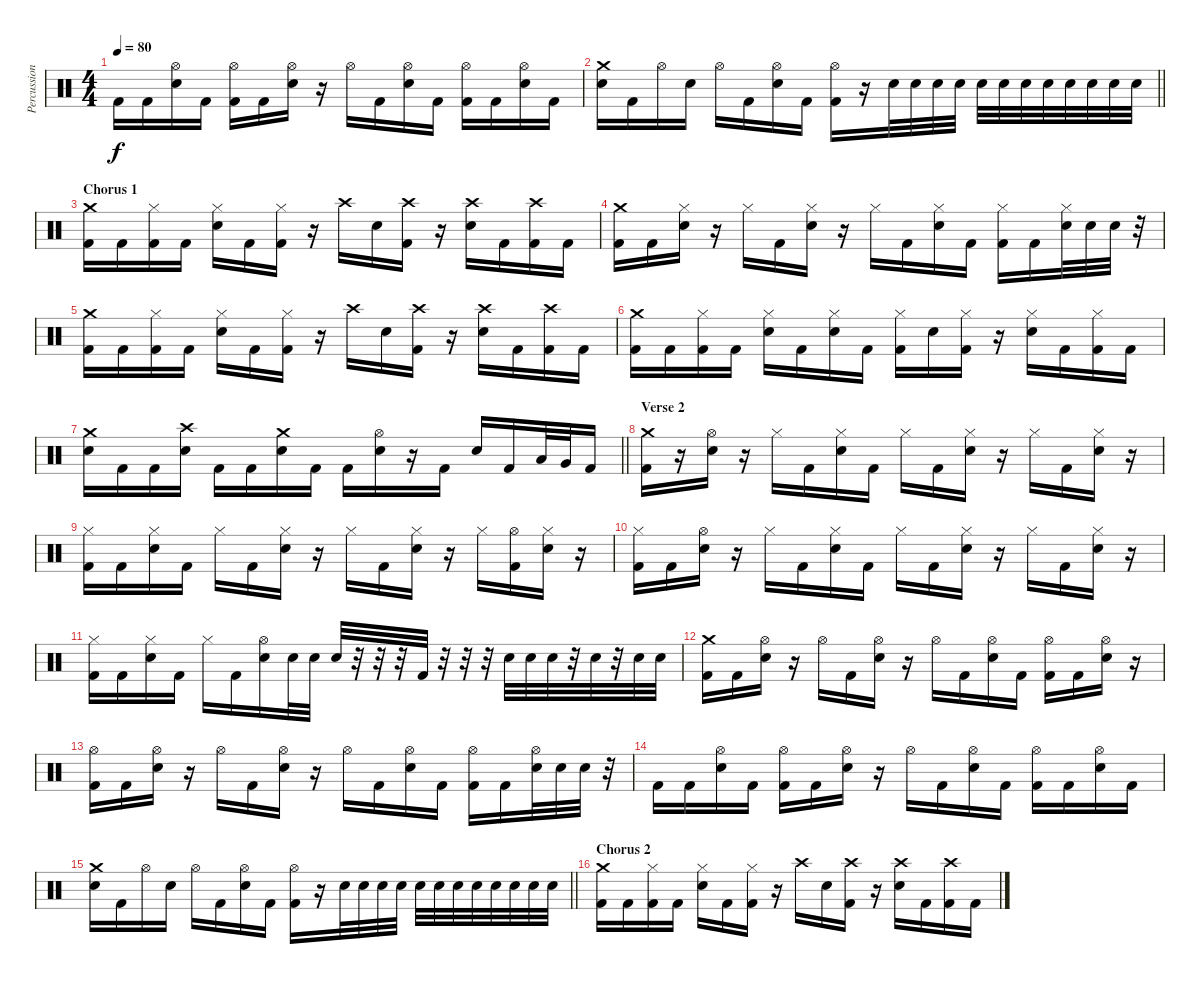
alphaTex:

\track ("Percussion" "Percussion") {instrument percussion}
\staff {score}
\articulation defaults
\ts (4 4)
\tempo 80
\clef neutral
\ks c "Kick (hit) 2".16{dy f} "Kick (hit) 2".16
("Hi-Hat (open)" "Electric Snare (hit)").16 "Kick (hit) 2".16 ("Hi-Hat (open)" "Kick (hit) 2").16 "Kick (hit) 2".16 ("Hi-Hat (open)" "Electric Snare (hit)").16 r.16 "Hi-Hat (open)".16 "Kick (hit) 2".16 ("Hi-Hat (open)" "Electric Snare (hit)").16 "Kick (hit) 2".16 ("Hi-Hat (open)" "Kick (hit) 2").16 "Kick (hit) 2".16 ("Hi-Hat (open)" "Electric Snare (hit)").16 "Kick (hit) 2".16 |
\barLineRight lightlight
("Crash medium (hit)" "Electric Snare (hit)").16 "Kick (hit) 2".16 "Hi-Hat (open)".16 "Electric Snare (hit)".16 "Hi-Hat (open)".16 "Kick (hit) 2".16 ("Hi-Hat (open)" "Electric Snare (hit)").16 "Kick (hit) 2".16 ("Hi-Hat (open)" "Kick (hit) 2").16 r.16 "Electric Snare (hit)".32 "Electric Snare (hit)".32 "Electric Snare (hit)".32 "Electric Snare (hit)".32 "Electric Snare (hit)".32 "Electric Snare (hit)".32 "Electric Snare (hit)".32 "Electric Snare (hit)".32 "Electric Snare (hit)".32 "Electric Snare (hit)".32 "Electric Snare (hit)".32 "Electric Snare (hit)".32 |
\section ("" "Chorus 1")
("Crash medium (hit)" "Kick (hit) 2").16 "Kick (hit) 2".16 ("Hi-Hat (closed)" "Kick (hit) 2").16 "Kick (hit) 2".16 ("Hi-Hat (closed)" "Electric Snare (hit)").16 "Kick (hit) 2".16 ("Hi-Hat (closed)" "Kick (hit) 2").16 r.16 "Crash high (hit)".16 "Electric Snare (hit)".16 ("Crash high (hit)" "Kick (hit) 2").16 r.16 ("Crash high (hit)" "Electric Snare (hit)").16 "Kick (hit) 2".16 ("Crash high (hit)" "Kick (hit) 2").16 "Kick (hit) 2".16 |
("Crash medium (hit)" "Kick (hit) 2").16 "Kick (hit) 2".16 ("Hi-Hat (closed)" "Electric Snare (hit)").16 r.16 "Hi-Hat (closed)".16 "Kick (hit) 2".16 ("Hi-Hat (closed)" "Electric Snare (hit)").16 r.16 "Hi-Hat (closed)".16 "Kick (hit) 2".16 ("Hi-Hat (closed)" "Electric Snare (hit)").16 "Kick (hit) 2".16 ("Hi-Hat (closed)" "Kick (hit) 2").16 "Kick (hit) 2".16 ("Hi-Hat (closed)" "Electric Snare (hit)").32 "Electric Snare (hit)".32 "Electric Snare (hit)".32 r.32 |
("Crash medium (hit)" "Kick (hit) 2").16 "Kick (hit) 2".16 ("Hi-Hat (closed)" "Kick (hit) 2").16 "Kick (hit) 2".16 ("Hi-Hat (closed)" "Electric Snare (hit)").16 "Kick (hit) 2".16 ("Hi-Hat (closed)" "Kick (hit) 2").16 r.16 "Crash high (hit)".16 "Electric Snare (hit)".16 ("Crash high (hit)" "Kick (hit) 2").16 r.16 ("Crash high (hit)" "Electric Snare (hit)").16 "Kick (hit) 2".16 ("Crash high (hit)" "Kick (hit) 2").16 "Kick (hit) 2".16 |
("Crash medium (hit)" "Kick (hit) 2").16 "Kick (hit) 2".16 ("Hi-Hat (closed)" "Kick (hit) 2").16 "Kick (hit) 2".16 ("Hi-Hat (closed)" "Electric Snare (hit)").16 "Kick (hit) 2".16 ("Hi-Hat (closed)" "Electric Snare (hit)").16 "Kick (hit) 2".16 ("Hi-Hat (closed)" "Kick (hit) 2").16 "Electric Snare (hit)".16 ("Hi-Hat (closed)" "Kick (hit) 2").16 r.16 ("Hi-Hat (closed)" "Electric Snare (hit)").16 "Kick (hit) 2".16 ("Hi-Hat (closed)" "Kick (hit) 2").16 "Kick (hit) 2".16 |
\barLineRight lightlight
("Crash medium (hit)" "Electric Snare (hit)").16 "Kick (hit) 2".16 "Kick (hit) 2".16 ("Crash high (hit)" "Electric Snare (hit)").16 "Kick (hit) 2".16 "Kick (hit) 2".16 ("Crash medium (hit)" "Electric Snare (hit)").16 "Kick (hit) 2".16 "Kick (hit) 2".16 ("Hi-Hat (open)" "Electric Snare (hit)").16 r.16 "Kick (hit) 2".16 "Electric Snare (hit)".16 "Kick (hit) 2".16 "Low Floor Tom (hit)".32 "Very Low Tom (hit)".32 "Kick (hit) 2".16 |
\section ("" "Verse 2")
("Crash medium (hit)" "Kick (hit) 2").16 r.16 ("Hi-Hat (open)" "Electric Snare (hit)").16 r.16 "Hi-Hat (closed)".16 "Kick (hit) 2".16 ("Hi-Hat (closed)" "Electric Snare (hit)").16 "Kick (hit) 2".16 "Hi-Hat (closed)".16 "Kick (hit) 2".16 ("Hi-Hat (closed)" "Electric Snare (hit)").16 r.16 "Hi-Hat (closed)".16 "Kick (hit) 2".16 ("Hi-Hat (closed)" "Electric Snare (hit)").16 r.16 |
("Hi-Hat (closed)" "Kick (hit) 2").16 "Kick (hit) 2".16 ("Hi-Hat (closed)" "Electric Snare (hit)").16 "Kick (hit) 2".16 "Hi-Hat (closed)".16 "Kick (hit) 2".16 ("Hi-Hat (closed)" "Electric Snare (hit)").16 r.16 "Hi-Hat (closed)".16 "Kick (hit) 2".16 ("Hi-Hat (closed)" "Electric Snare (hit)").16 r.16 "Hi-Hat (closed)".16 ("Hi-Hat (open)" "Kick (hit) 2").16 ("Hi-Hat (closed)" "Electric Snare (hit)").16 r.16 |
("Hi-Hat (closed)" "Kick (hit) 2").16 "Kick (hit) 2".16 ("Hi-Hat (open)" "Electric Snare (hit)").16 r.16 "Hi-Hat (closed)".16 "Kick (hit) 2".16 ("Hi-Hat (closed)" "Electric Snare (hit)").16 "Kick (hit) 2".16 "Hi-Hat (closed)".16 "Kick (hit) 2".16 ("Hi-Hat (closed)" "Electric Snare (hit)").16 r.16 "Hi-Hat (closed)".16 "Kick (hit) 2".16 ("Hi-Hat (closed)" "Electric Snare (hit)").16 r.16 |
("Hi-Hat (closed)" "Kick (hit) 2").16 "Kick (hit) 2".16 ("Hi-Hat (closed)" "Electric Snare (hit)").16 "Kick (hit) 2".16 "Hi-Hat (closed)".16 "Kick (hit) 2".16 ("Hi-Hat (open)" "Electric Snare (hit)").16 "Electric Snare (hit)".32 "Electric Snare (hit)".32 "Electric Snare (hit)".32 r.32 r.32 r.32 "Kick (hit) 2".32 r.32 r.32 r.32 "Electric Snare (hit)".32 "Electric Snare (hit)".32 "Electric Snare (hit)".32 r.32 "Electric Snare (hit)".32 r.32 "Electric Snare (hit)".32 "Electric Snare (hit)".32 |
("Crash medium (hit)" "Kick (hit) 2").16 "Kick (hit) 2".16 ("Hi-Hat (open)" "Electric Snare (hit)").16 r.16 "Hi-Hat (open)".16 "Kick (hit) 2".16 ("Hi-Hat (open)" "Electric Snare (hit)").16 r.16 "Hi-Hat (open)".16 "Kick (hit) 2".16 ("Hi-Hat (open)" "Electric Snare (hit)").16 "Kick (hit) 2".16 ("Hi-Hat (open)" "Kick (hit) 2").16 "Kick (hit) 2".16 ("Hi-Hat (open)" "Electric Snare (hit)").16 r.16 |
("Hi-Hat (open)" "Kick (hit) 2").16 "Kick (hit) 2".16 ("Hi-Hat (open)" "Electric Snare (hit)").16 r.16 "Hi-Hat (open)".16 "Kick (hit) 2".16 ("Hi-Hat (open)" "Electric Snare (hit)").16 r.16 "Hi-Hat (open)".16 "Kick (hit) 2".16 ("Hi-Hat (open)" "Electric Snare (hit)").16 "Kick (hit) 2".16 ("Hi-Hat (open)" "Kick (hit) 2").16 "Kick (hit) 2".16 ("Hi-Hat (open)" "Electric Snare (hit)").32 "Electric Snare (hit)".32 "Electric Snare (hit)".32 r.32 |
"Kick (hit) 2".16 "Kick (hit) 2".16 ("Hi-Hat (open)" "Electric Snare (hit)").16 "Kick (hit) 2".16 ("Hi-Hat (open)" "Kick (hit) 2").16 "Kick (hit) 2".16 ("Hi-Hat (open)" "Electric Snare (hit)").16 r.16 "Hi-Hat (open)".16 "Kick (hit) 2".16 ("Hi-Hat (open)" "Electric Snare (hit)").16 "Kick (hit) 2".16 ("Hi-Hat (open)" "Kick (hit) 2").16 "Kick (hit) 2".16 ("Hi-Hat (open)" "Electric Snare (hit)").16 "Kick (hit) 2".16 |
\barLineRight lightlight
("Crash medium (hit)" "Electric Snare (hit)").16 "Kick (hit) 2".16 "Hi-Hat (open)".16 "Electric Snare (hit)".16 "Hi-Hat (open)".16 "Kick (hit) 2".16 ("Hi-Hat (open)" "Electric Snare (hit)").16 "Kick (hit) 2".16 ("Hi-Hat (open)" "Kick (hit) 2").16 r.16 "Electric Snare (hit)".32 "Electric Snare (hit)".32 "Electric Snare (hit)".32 "Electric Snare (hit)".32 "Electric Snare (hit)".32 "Electric Snare (hit)".32 "Electric Snare (hit)".32 "Electric Snare (hit)".32 "Electric Snare (hit)".32 "Electric Snare (hit)".32 "Electric Snare (hit)".32 "Electric Snare (hit)".32 |
\section ("" "Chorus 2")
("Crash medium (hit)" "Kick (hit) 2").16 "Kick (hit) 2".16 ("Hi-Hat (closed)" "Kick (hit) 2").16 "Kick (hit) 2".16 ("Hi-Hat (closed)" "Electric Snare (hit)").16 "Kick (hit) 2".16 ("Hi-Hat (closed)" "Kick (hit) 2").16 r.16 "Crash high (hit)".16 "Electric Snare (hit)".16 ("Crash high (hit)" "Kick (hit) 2").16 r.16 ("Crash high (hit)" "Electric Snare (hit)").16 "Kick (hit) 2".16 ("Crash high (hit)" "Kick (hit) 2").16 "Kick (hit) 2".16
